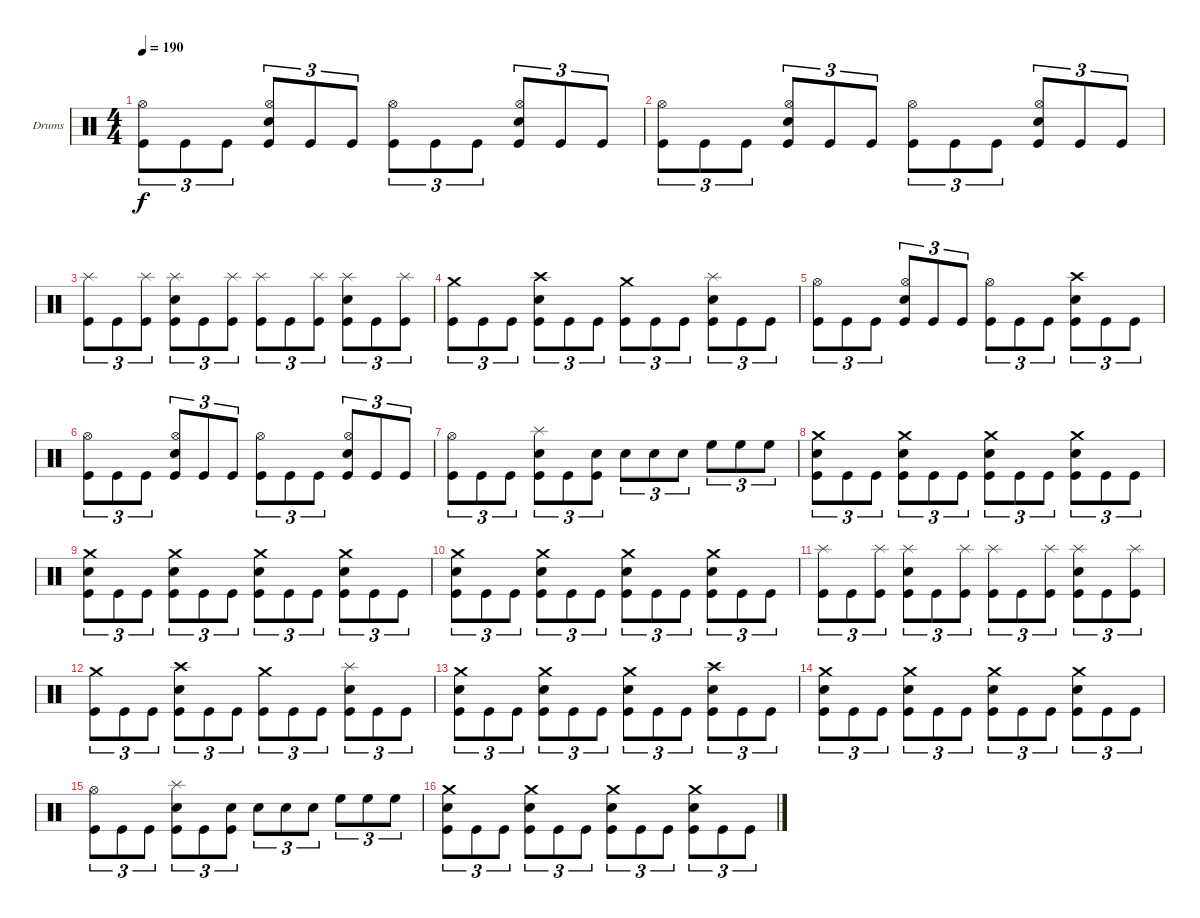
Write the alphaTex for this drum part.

\bracketExtendMode groupsimilarinstruments
\firstSystemTrackNameOrientation horizontal
\otherSystemsTrackNameOrientation horizontal
\track ("Drumkit" "Drums") {instrument percussion}
\staff {score}
\articulation defaults
\ts (4 4)
\tempo 190
\clef neutral
\ks c
("Kick (hit)" "Hi-Hat (open)").8{tu (3 2) dy f} "Kick (hit)".8{tu (3 2)} "Kick (hit)".8{tu (3 2)} ("Kick (hit)" "Snare (hit) 2" "Hi-Hat (open)").8{tu (3 2)} "Kick (hit)".8{tu (3 2)} "Kick (hit)".8{tu (3 2)} ("Kick (hit)" "Hi-Hat (open)").8{tu (3 2)} "Kick (hit)".8{tu (3 2)} "Kick (hit)".8{tu (3 2)} ("Kick (hit)" "Snare (hit) 2" "Hi-Hat (open)").8{tu (3 2)} "Kick (hit)".8{tu (3 2)} "Kick (hit)".8{tu (3 2)} |
("Kick (hit)" "Hi-Hat (open)").8{tu (3 2)} "Kick (hit)".8{tu (3 2)} "Kick (hit)".8{tu (3 2)} ("Kick (hit)" "Snare (hit) 2" "Hi-Hat (open)").8{tu (3 2)} "Kick (hit)".8{tu (3 2)} "Kick (hit)".8{tu (3 2)} ("Kick (hit)" "Hi-Hat (open)").8{tu (3 2)} "Kick (hit)".8{tu (3 2)} "Kick (hit)".8{tu (3 2)} ("Kick (hit)" "Snare (hit) 2" "Hi-Hat (open)").8{tu (3 2)} "Kick (hit)".8{tu (3 2)} "Kick (hit)".8{tu (3 2)} |
("Kick (hit)" "Splash (hit)").8{tu (3 2)} "Kick (hit)".8{tu (3 2)} ("Kick (hit)" "Splash (hit)").8{tu (3 2)} ("Kick (hit)" "Snare (hit) 2" "Splash (hit)").8{tu (3 2)} "Kick (hit)".8{tu (3 2)} ("Kick (hit)" "Splash (hit)").8{tu (3 2)} ("Kick (hit)" "Splash (hit)").8{tu (3 2)} "Kick (hit)".8{tu (3 2)} ("Kick (hit)" "Splash (hit)").8{tu (3 2)} ("Kick (hit)" "Snare (hit) 2" "Splash (hit)").8{tu (3 2)} "Kick (hit)".8{tu (3 2)} ("Kick (hit)" "Splash (hit)").8{tu (3 2)} |
("Kick (hit)" "Crash medium (hit)").8{tu (3 2)} "Kick (hit)".8{tu (3 2)} "Kick (hit)".8{tu (3 2)} ("Kick (hit)" "Snare (hit) 2" "Crash high (hit)").8{tu (3 2)} "Kick (hit)".8{tu (3 2)} "Kick (hit)".8{tu (3 2)} ("Kick (hit)" "Crash medium (hit)").8{tu (3 2)} "Kick (hit)".8{tu (3 2)} "Kick (hit)".8{tu (3 2)} ("Kick (hit)" "Snare (hit) 2" "Splash (hit)").8{tu (3 2)} "Kick (hit)".8{tu (3 2)} "Kick (hit)".8{tu (3 2)} |
("Kick (hit)" "Hi-Hat (open)").8{tu (3 2)} "Kick (hit)".8{tu (3 2)} "Kick (hit)".8{tu (3 2)} ("Kick (hit)" "Snare (hit) 2" "Hi-Hat (open)").8{tu (3 2)} "Kick (hit)".8{tu (3 2)} "Kick (hit)".8{tu (3 2)} ("Kick (hit)" "Hi-Hat (open)").8{tu (3 2)} "Kick (hit)".8{tu (3 2)} "Kick (hit)".8{tu (3 2)} ("Kick (hit)" "Snare (hit) 2" "Crash high (hit)").8{tu (3 2)} "Kick (hit)".8{tu (3 2)} "Kick (hit)".8{tu (3 2)} |
("Kick (hit)" "Hi-Hat (open)").8{tu (3 2)} "Kick (hit)".8{tu (3 2)} "Kick (hit)".8{tu (3 2)} ("Kick (hit)" "Snare (hit) 2" "Hi-Hat (open)").8{tu (3 2)} "Kick (hit)".8{tu (3 2)} "Kick (hit)".8{tu (3 2)} ("Kick (hit)" "Hi-Hat (open)").8{tu (3 2)} "Kick (hit)".8{tu (3 2)} "Kick (hit)".8{tu (3 2)} ("Kick (hit)" "Snare (hit) 2" "Hi-Hat (open)").8{tu (3 2)} "Kick (hit)".8{tu (3 2)} "Kick (hit)".8{tu (3 2)} |
("Kick (hit)" "Hi-Hat (open)").8{tu (3 2)} "Kick (hit)".8{tu (3 2)} "Kick (hit)".8{tu (3 2)} ("Kick (hit)" "Snare (hit) 2" "Splash (hit)").8{tu (3 2)} "Kick (hit)".8{tu (3 2)} ("Kick (hit)" "Snare (hit) 2").8{tu (3 2)} "Snare (hit) 2".8{tu (3 2)} "Snare (hit) 2".8{tu (3 2)} "Snare (hit) 2".8{tu (3 2)} "High Floor Tom (hit)".8{tu (3 2)} "High Floor Tom (hit)".8{tu (3 2)} "High Floor Tom (hit)".8{tu (3 2)} |
("Kick (hit)" "Snare (hit) 2" "Crash medium (hit)").8{tu (3 2)} "Kick (hit)".8{tu (3 2)} "Kick (hit)".8{tu (3 2)} ("Kick (hit)" "Snare (hit) 2" "Crash medium (hit)").8{tu (3 2)} "Kick (hit)".8{tu (3 2)} "Kick (hit)".8{tu (3 2)} ("Kick (hit)" "Snare (hit) 2" "Crash medium (hit)").8{tu (3 2)} "Kick (hit)".8{tu (3 2)} "Kick (hit)".8{tu (3 2)} ("Kick (hit)" "Snare (hit) 2" "Crash medium (hit)").8{tu (3 2)} "Kick (hit)".8{tu (3 2)} "Kick (hit)".8{tu (3 2)} |
("Kick (hit)" "Snare (hit) 2" "Crash medium (hit)").8{tu (3 2)} "Kick (hit)".8{tu (3 2)} "Kick (hit)".8{tu (3 2)} ("Kick (hit)" "Snare (hit) 2" "Crash medium (hit)").8{tu (3 2)} "Kick (hit)".8{tu (3 2)} "Kick (hit)".8{tu (3 2)} ("Kick (hit)" "Snare (hit) 2" "Crash medium (hit)").8{tu (3 2)} "Kick (hit)".8{tu (3 2)} "Kick (hit)".8{tu (3 2)} ("Kick (hit)" "Snare (hit) 2" "Crash medium (hit)").8{tu (3 2)} "Kick (hit)".8{tu (3 2)} "Kick (hit)".8{tu (3 2)} |
("Kick (hit)" "Snare (hit) 2" "Crash medium (hit)").8{tu (3 2)} "Kick (hit)".8{tu (3 2)} "Kick (hit)".8{tu (3 2)} ("Kick (hit)" "Snare (hit) 2" "Crash medium (hit)").8{tu (3 2)} "Kick (hit)".8{tu (3 2)} "Kick (hit)".8{tu (3 2)} ("Kick (hit)" "Snare (hit) 2" "Crash medium (hit)").8{tu (3 2)} "Kick (hit)".8{tu (3 2)} "Kick (hit)".8{tu (3 2)} ("Kick (hit)" "Snare (hit) 2" "Crash medium (hit)").8{tu (3 2)} "Kick (hit)".8{tu (3 2)} "Kick (hit)".8{tu (3 2)} |
("Kick (hit)" "Splash (hit)").8{tu (3 2)} "Kick (hit)".8{tu (3 2)} ("Kick (hit)" "Splash (hit)").8{tu (3 2)} ("Kick (hit)" "Snare (hit) 2" "Splash (hit)").8{tu (3 2)} "Kick (hit)".8{tu (3 2)} ("Kick (hit)" "Splash (hit)").8{tu (3 2)} ("Kick (hit)" "Splash (hit)").8{tu (3 2)} "Kick (hit)".8{tu (3 2)} ("Kick (hit)" "Splash (hit)").8{tu (3 2)} ("Kick (hit)" "Snare (hit) 2" "Splash (hit)").8{tu (3 2)} "Kick (hit)".8{tu (3 2)} ("Kick (hit)" "Splash (hit)").8{tu (3 2)} |
("Kick (hit)" "Crash medium (hit)").8{tu (3 2)} "Kick (hit)".8{tu (3 2)} "Kick (hit)".8{tu (3 2)} ("Kick (hit)" "Snare (hit) 2" "Crash high (hit)").8{tu (3 2)} "Kick (hit)".8{tu (3 2)} "Kick (hit)".8{tu (3 2)} ("Kick (hit)" "Crash medium (hit)").8{tu (3 2)} "Kick (hit)".8{tu (3 2)} "Kick (hit)".8{tu (3 2)} ("Kick (hit)" "Snare (hit) 2" "Splash (hit)").8{tu (3 2)} "Kick (hit)".8{tu (3 2)} "Kick (hit)".8{tu (3 2)} |
("Kick (hit)" "Snare (hit) 2" "Crash medium (hit)").8{tu (3 2)} "Kick (hit)".8{tu (3 2)} "Kick (hit)".8{tu (3 2)} ("Kick (hit)" "Snare (hit) 2" "Crash medium (hit)").8{tu (3 2)} "Kick (hit)".8{tu (3 2)} "Kick (hit)".8{tu (3 2)} ("Kick (hit)" "Snare (hit) 2" "Crash medium (hit)").8{tu (3 2)} "Kick (hit)".8{tu (3 2)} "Kick (hit)".8{tu (3 2)} ("Kick (hit)" "Snare (hit) 2" "Crash high (hit)").8{tu (3 2)} "Kick (hit)".8{tu (3 2)} "Kick (hit)".8{tu (3 2)} |
("Kick (hit)" "Snare (hit) 2" "Crash medium (hit)").8{tu (3 2)} "Kick (hit)".8{tu (3 2)} "Kick (hit)".8{tu (3 2)} ("Kick (hit)" "Snare (hit) 2" "Crash medium (hit)").8{tu (3 2)} "Kick (hit)".8{tu (3 2)} "Kick (hit)".8{tu (3 2)} ("Kick (hit)" "Snare (hit) 2" "Crash medium (hit)").8{tu (3 2)} "Kick (hit)".8{tu (3 2)} "Kick (hit)".8{tu (3 2)} ("Kick (hit)" "Snare (hit) 2" "Crash medium (hit)").8{tu (3 2)} "Kick (hit)".8{tu (3 2)} "Kick (hit)".8{tu (3 2)} |
("Kick (hit)" "Hi-Hat (open)").8{tu (3 2)} "Kick (hit)".8{tu (3 2)} "Kick (hit)".8{tu (3 2)} ("Kick (hit)" "Snare (hit) 2" "Splash (hit)").8{tu (3 2)} "Kick (hit)".8{tu (3 2)} ("Kick (hit)" "Snare (hit) 2").8{tu (3 2)} "Snare (hit) 2".8{tu (3 2)} "Snare (hit) 2".8{tu (3 2)} "Snare (hit) 2".8{tu (3 2)} "High Floor Tom (hit)".8{tu (3 2)} "High Floor Tom (hit)".8{tu (3 2)} "High Floor Tom (hit)".8{tu (3 2)} |
("Kick (hit)" "Snare (hit) 2" "Crash medium (hit)").8{tu (3 2)} "Kick (hit)".8{tu (3 2)} "Kick (hit)".8{tu (3 2)} ("Kick (hit)" "Snare (hit) 2" "Crash medium (hit)").8{tu (3 2)} "Kick (hit)".8{tu (3 2)} "Kick (hit)".8{tu (3 2)} ("Kick (hit)" "Snare (hit) 2" "Crash medium (hit)").8{tu (3 2)} "Kick (hit)".8{tu (3 2)} "Kick (hit)".8{tu (3 2)} ("Kick (hit)" "Snare (hit) 2" "Crash medium (hit)").8{tu (3 2)} "Kick (hit)".8{tu (3 2)} "Kick (hit)".8{tu (3 2)}
